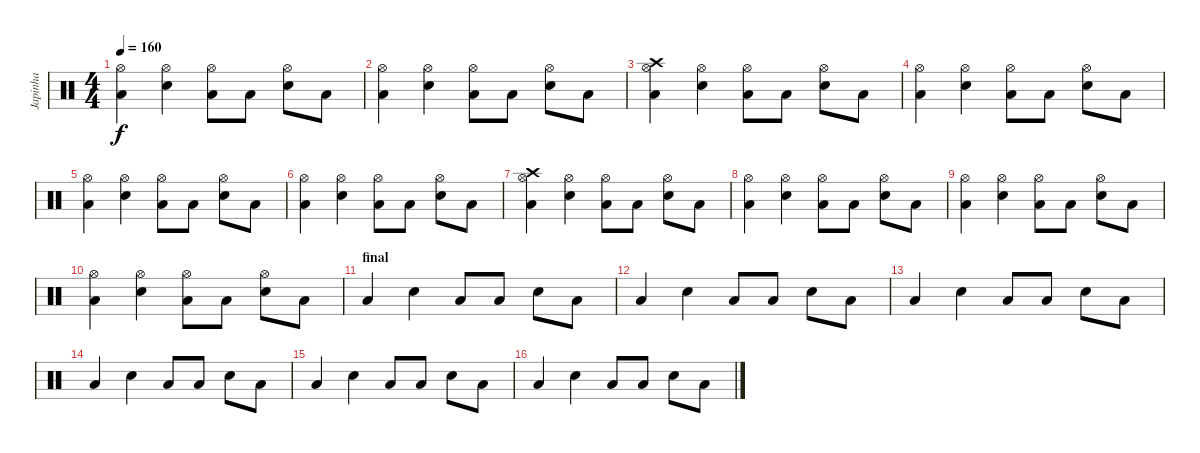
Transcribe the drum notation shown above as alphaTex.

\track ("Japinha" "Japinha") {instrument percussion}
\staff {score}
\articulation defaults
\ts (4 4)
\tempo 160
\clef neutral
\ks c
("Hi-Hat (open)" "Low Tom (hit)").4{dy f} ("Hi-Hat (open)" "Snare (hit) 2").4 ("Hi-Hat (open)" "Low Tom (hit)").8 "Low Tom (hit)".8 ("Hi-Hat (open)" "Snare (hit) 2").8 "Low Tom (hit)".8 |
("Hi-Hat (open)" "Low Tom (hit)").4 ("Hi-Hat (open)" "Snare (hit) 2").4 ("Hi-Hat (open)" "Low Tom (hit)").8 "Low Tom (hit)".8 ("Hi-Hat (open)" "Snare (hit) 2").8 "Low Tom (hit)".8 |
("Crash high (hit)" "Hi-Hat (open)" "Low Tom (hit)").4 ("Hi-Hat (open)" "Snare (hit) 2").4 ("Hi-Hat (open)" "Low Tom (hit)").8 "Low Tom (hit)".8 ("Hi-Hat (open)" "Snare (hit) 2").8 "Low Tom (hit)".8 |
("Hi-Hat (open)" "Low Tom (hit)").4 ("Hi-Hat (open)" "Snare (hit) 2").4 ("Hi-Hat (open)" "Low Tom (hit)").8 "Low Tom (hit)".8 ("Hi-Hat (open)" "Snare (hit) 2").8 "Low Tom (hit)".8 |
("Hi-Hat (open)" "Low Tom (hit)").4 ("Hi-Hat (open)" "Snare (hit) 2").4 ("Hi-Hat (open)" "Low Tom (hit)").8 "Low Tom (hit)".8 ("Hi-Hat (open)" "Snare (hit) 2").8 "Low Tom (hit)".8 |
("Hi-Hat (open)" "Low Tom (hit)").4 ("Hi-Hat (open)" "Snare (hit) 2").4 ("Hi-Hat (open)" "Low Tom (hit)").8 "Low Tom (hit)".8 ("Hi-Hat (open)" "Snare (hit) 2").8 "Low Tom (hit)".8 |
("Crash high (hit)" "Hi-Hat (open)" "Low Tom (hit)").4 ("Hi-Hat (open)" "Snare (hit) 2").4 ("Hi-Hat (open)" "Low Tom (hit)").8 "Low Tom (hit)".8 ("Hi-Hat (open)" "Snare (hit) 2").8 "Low Tom (hit)".8 |
("Hi-Hat (open)" "Low Tom (hit)").4 ("Hi-Hat (open)" "Snare (hit) 2").4 ("Hi-Hat (open)" "Low Tom (hit)").8 "Low Tom (hit)".8 ("Hi-Hat (open)" "Snare (hit) 2").8 "Low Tom (hit)".8 |
("Hi-Hat (open)" "Low Tom (hit)").4 ("Hi-Hat (open)" "Snare (hit) 2").4 ("Hi-Hat (open)" "Low Tom (hit)").8 "Low Tom (hit)".8 ("Hi-Hat (open)" "Snare (hit) 2").8 "Low Tom (hit)".8 |
("Hi-Hat (open)" "Low Tom (hit)").4 ("Hi-Hat (open)" "Snare (hit) 2").4 ("Hi-Hat (open)" "Low Tom (hit)").8 "Low Tom (hit)".8 ("Hi-Hat (open)" "Snare (hit) 2").8 "Low Tom (hit)".8 |
\section ("" "final")
"Low Tom (hit)".4 "Snare (hit) 2".4 "Low Tom (hit)".8 "Low Tom (hit)".8 "Snare (hit) 2".8 "Low Tom (hit)".8 |
"Low Tom (hit)".4 "Snare (hit) 2".4 "Low Tom (hit)".8 "Low Tom (hit)".8 "Snare (hit) 2".8 "Low Tom (hit)".8 |
"Low Tom (hit)".4 "Snare (hit) 2".4 "Low Tom (hit)".8 "Low Tom (hit)".8 "Snare (hit) 2".8 "Low Tom (hit)".8 |
"Low Tom (hit)".4 "Snare (hit) 2".4 "Low Tom (hit)".8 "Low Tom (hit)".8 "Snare (hit) 2".8 "Low Tom (hit)".8 |
"Low Tom (hit)".4 "Snare (hit) 2".4 "Low Tom (hit)".8 "Low Tom (hit)".8 "Snare (hit) 2".8 "Low Tom (hit)".8 |
"Low Tom (hit)".4 "Snare (hit) 2".4 "Low Tom (hit)".8 "Low Tom (hit)".8 "Snare (hit) 2".8 "Low Tom (hit)".8
